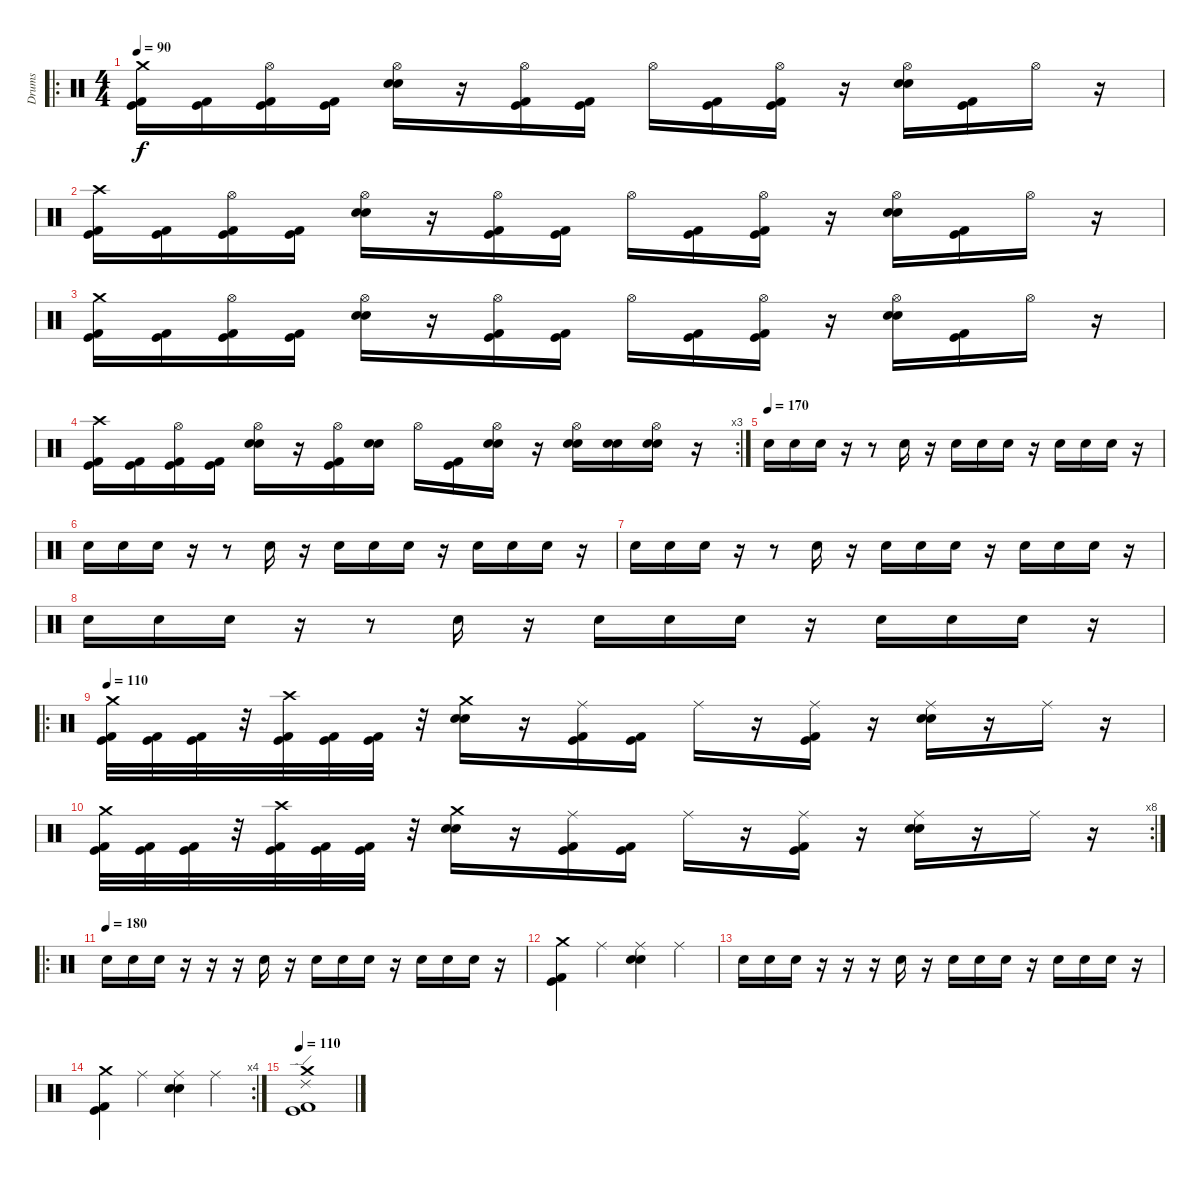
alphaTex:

\track ("Drums" "Drums") {instrument percussion}
\staff {score}
\articulation defaults
\ro
\ts (4 4)
\tempo 90
\clef neutral
\ks c
("Crash medium (hit)" "Kick (hit)" "Kick (hit) 2").16{dy f} ("Kick (hit)" "Kick (hit) 2").16 ("Hi-Hat (open)" "Kick (hit)" "Kick (hit) 2").16 ("Kick (hit)" "Kick (hit) 2").16 ("Hi-Hat (open)" "Snare (hit) 2" "Snare (hit) 2").16 r.16 ("Hi-Hat (open)" "Kick (hit)" "Kick (hit) 2").16 ("Kick (hit)" "Kick (hit) 2").16 "Hi-Hat (open)".16 ("Kick (hit)" "Kick (hit) 2").16 ("Hi-Hat (open)" "Kick (hit)" "Kick (hit) 2").16 r.16 ("Hi-Hat (open)" "Snare (hit) 2" "Snare (hit) 2").16 ("Kick (hit)" "Kick (hit) 2").16 "Hi-Hat (open)".16 r.16 |
("Crash high (hit)" "Kick (hit)" "Kick (hit) 2").16 ("Kick (hit)" "Kick (hit) 2").16 ("Hi-Hat (open)" "Kick (hit)" "Kick (hit) 2").16 ("Kick (hit)" "Kick (hit) 2").16 ("Hi-Hat (open)" "Snare (hit) 2" "Snare (hit) 2").16 r.16 ("Hi-Hat (open)" "Kick (hit)" "Kick (hit) 2").16 ("Kick (hit)" "Kick (hit) 2").16 "Hi-Hat (open)".16 ("Kick (hit)" "Kick (hit) 2").16 ("Hi-Hat (open)" "Kick (hit)" "Kick (hit) 2").16 r.16 ("Hi-Hat (open)" "Snare (hit) 2" "Snare (hit) 2").16 ("Kick (hit)" "Kick (hit) 2").16 "Hi-Hat (open)".16 r.16 |
("Crash medium (hit)" "Kick (hit)" "Kick (hit) 2").16 ("Kick (hit)" "Kick (hit) 2").16 ("Hi-Hat (open)" "Kick (hit)" "Kick (hit) 2").16 ("Kick (hit)" "Kick (hit) 2").16 ("Hi-Hat (open)" "Snare (hit) 2" "Snare (hit) 2").16 r.16 ("Hi-Hat (open)" "Kick (hit)" "Kick (hit) 2").16 ("Kick (hit)" "Kick (hit) 2").16 "Hi-Hat (open)".16 ("Kick (hit)" "Kick (hit) 2").16 ("Hi-Hat (open)" "Kick (hit)" "Kick (hit) 2").16 r.16 ("Hi-Hat (open)" "Snare (hit) 2" "Snare (hit) 2").16 ("Kick (hit)" "Kick (hit) 2").16 "Hi-Hat (open)".16 r.16 |
\rc 3
("Crash high (hit)" "Kick (hit)" "Kick (hit) 2").16 ("Kick (hit)" "Kick (hit) 2").16 ("Hi-Hat (open)" "Kick (hit)" "Kick (hit) 2").16 ("Kick (hit)" "Kick (hit) 2").16 ("Hi-Hat (open)" "Snare (hit) 2" "Snare (hit) 2").16 r.16 ("Hi-Hat (open)" "Kick (hit)" "Kick (hit) 2").16 ("Snare (hit) 2" "Snare (hit) 2").16 "Hi-Hat (open)".16 ("Kick (hit)" "Kick (hit) 2").16 ("Hi-Hat (open)" "Snare (hit) 2" "Snare (hit) 2").16 r.16 ("Hi-Hat (open)" "Snare (hit) 2" "Snare (hit) 2").16 ("Snare (hit) 2" "Snare (hit) 2").16 ("Hi-Hat (open)" "Snare (hit) 2" "Snare (hit) 2").16 r.16 |
\tempo (170)
"Snare (hit) 2".16 "Snare (hit) 2".16 "Snare (hit) 2".16 r.16 r.8 "Snare (hit) 2".16 r.16 "Snare (hit) 2".16 "Snare (hit) 2".16 "Snare (hit) 2".16 r.16 "Snare (hit) 2".16 "Snare (hit) 2".16 "Snare (hit) 2".16 r.16 |
"Snare (hit) 2".16 "Snare (hit) 2".16 "Snare (hit) 2".16 r.16 r.8 "Snare (hit) 2".16 r.16 "Snare (hit) 2".16 "Snare (hit) 2".16 "Snare (hit) 2".16 r.16 "Snare (hit) 2".16 "Snare (hit) 2".16 "Snare (hit) 2".16 r.16 |
"Snare (hit) 2".16 "Snare (hit) 2".16 "Snare (hit) 2".16 r.16 r.8 "Snare (hit) 2".16 r.16 "Snare (hit) 2".16 "Snare (hit) 2".16 "Snare (hit) 2".16 r.16 "Snare (hit) 2".16 "Snare (hit) 2".16 "Snare (hit) 2".16 r.16 |
"Snare (hit) 2".16 "Snare (hit) 2".16 "Snare (hit) 2".16 r.16 r.8 "Snare (hit) 2".16 r.16 "Snare (hit) 2".16 "Snare (hit) 2".16 "Snare (hit) 2".16 r.16 "Snare (hit) 2".16 "Snare (hit) 2".16 "Snare (hit) 2".16 r.16 |
\ro
\tempo 110
("Crash medium (hit)" "Kick (hit)" "Kick (hit) 2").32 ("Kick (hit)" "Kick (hit) 2").32 ("Kick (hit)" "Kick (hit) 2").32 r.32 ("Crash high (hit)" "Kick (hit)" "Kick (hit) 2").32 ("Kick (hit)" "Kick (hit) 2").32 ("Kick (hit)" "Kick (hit) 2").32 r.32 ("Crash medium (hit)" "Snare (hit) 2" "Snare (hit) 2").16 r.16 ("Ride (middle)" "Kick (hit)" "Kick (hit) 2").16 ("Kick (hit)" "Kick (hit) 2").16 "Ride (middle)".16 r.16 ("Ride (middle)" "Kick (hit)" "Kick (hit) 2").16 r.16 ("Ride (middle)" "Snare (hit) 2" "Snare (hit) 2").16 r.16 "Ride (middle)".16 r.16 |
\rc 8
("Crash medium (hit)" "Kick (hit)" "Kick (hit) 2").32 ("Kick (hit)" "Kick (hit) 2").32 ("Kick (hit)" "Kick (hit) 2").32 r.32 ("Crash high (hit)" "Kick (hit)" "Kick (hit) 2").32 ("Kick (hit)" "Kick (hit) 2").32 ("Kick (hit)" "Kick (hit) 2").32 r.32 ("Crash medium (hit)" "Snare (hit) 2" "Snare (hit) 2").16 r.16 ("Ride (middle)" "Kick (hit)" "Kick (hit) 2").16 ("Kick (hit)" "Kick (hit) 2").16 "Ride (middle)".16 r.16 ("Ride (middle)" "Kick (hit)" "Kick (hit) 2").16 r.16 ("Ride (middle)" "Snare (hit) 2" "Snare (hit) 2").16 r.16 "Ride (middle)".16 r.16 |
\ro
\tempo (180)
"Snare (hit) 2".16 "Snare (hit) 2".16 "Snare (hit) 2".16 r.16 r.16 r.16 "Snare (hit) 2".16 r.16 "Snare (hit) 2".16 "Snare (hit) 2".16 "Snare (hit) 2".16 r.16 "Snare (hit) 2".16 "Snare (hit) 2".16 "Snare (hit) 2".16 r.16 |
("Crash medium (hit)" "Kick (hit)" "Kick (hit) 2").4 "Ride (middle)".4 ("Ride (middle)" "Snare (hit) 2" "Snare (hit) 2").4 "Ride (middle)".4 |
"Snare (hit) 2".16 "Snare (hit) 2".16 "Snare (hit) 2".16 r.16 r.16 r.16 "Snare (hit) 2".16 r.16 "Snare (hit) 2".16 "Snare (hit) 2".16 "Snare (hit) 2".16 r.16 "Snare (hit) 2".16 "Snare (hit) 2".16 "Snare (hit) 2".16 r.16 |
\rc 4
("Crash medium (hit)" "Kick (hit)" "Kick (hit) 2").4 "Ride (middle)".4 ("Ride (middle)" "Snare (hit) 2" "Snare (hit) 2").4 "Ride (middle)".4 |
\tempo 110
("Crash medium (hit)" "Ride (edge) 2" "Kick (hit)" "Kick (hit) 2").1
